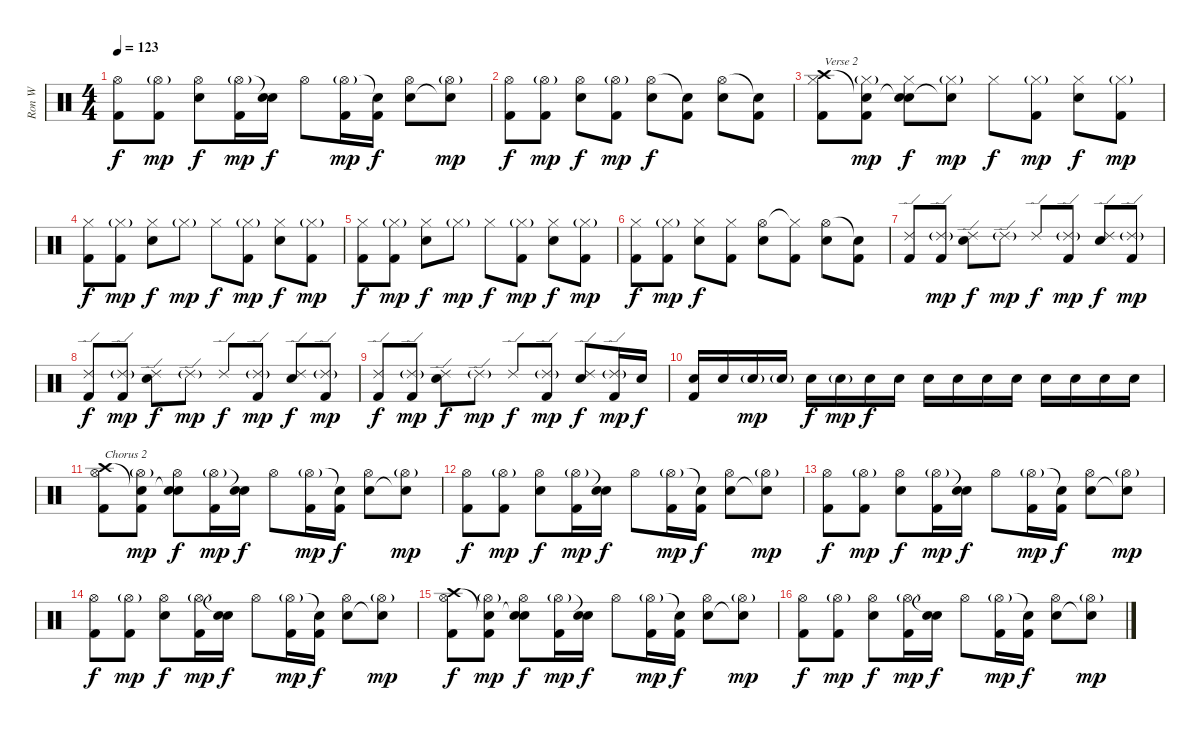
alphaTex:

\track ("Ron W" "Ron W") {instrument percussion}
\staff {score}
\articulation defaults
\ts (4 4)
\tempo 123
\clef neutral
\ks c
("Hi-Hat (open)" "Kick (hit) 2").8{dy f volume 12} ("Hi-Hat (open)"{g} "Kick (hit) 2").8{dy mp} ("Hi-Hat (open)" "Electric Snare (hit)").8{dy f} ("Hi-Hat (open)"{g} "Kick (hit) 2").16{dy mp} ("Snare (hit)"{t} "Electric Snare (hit)").16{dy f} "Hi-Hat (open)".8 ("Hi-Hat (open)"{g} "Kick (hit) 2").16{dy mp} ("Snare (hit)"{t} "Kick (hit) 2").16{dy f} ("Hi-Hat (open)" "Electric Snare (hit)").8 ("Hi-Hat (open)"{g} "Snare (hit)"{t}).8{dy mp} |
("Hi-Hat (open)" "Kick (hit) 2").8{dy f volume 12} ("Hi-Hat (open)"{g} "Kick (hit) 2").8{dy mp} ("Hi-Hat (open)" "Electric Snare (hit)").8{dy f} ("Hi-Hat (open)"{g} "Kick (hit) 2").8{dy mp} ("Hi-Hat (open)" "Electric Snare (hit)").8{dy f} ("Snare (hit)"{t} "Kick (hit) 2").8 ("Hi-Hat (open)" "Electric Snare (hit)").8 ("Snare (hit)"{t} "Kick (hit) 2").8 |
("Crash high (hit)" "Hi-Hat (closed)" "Kick (hit) 2").8{txt "Verse 2" volume 10 balance 8} ("Snare (hit)"{t} "Hi-Hat (closed)"{g} "Kick (hit) 2").8{dy mp balance 8} ("Snare (hit)"{t} "Hi-Hat (closed)" "Electric Snare (hit)").8{dy f balance 8} ("Snare (hit)"{t} "Hi-Hat (closed)"{g}).8{dy mp balance 8} "Hi-Hat (closed)".8{dy f} ("Hi-Hat (closed)"{g} "Kick (hit) 2").8{dy mp balance 8} ("Hi-Hat (closed)" "Electric Snare (hit)").8{dy f} ("Hi-Hat (closed)"{g} "Kick (hit) 2").8{dy mp} |
("Hi-Hat (closed)" "Kick (hit) 2").8{dy f balance 8} ("Hi-Hat (closed)"{g} "Kick (hit) 2").8{dy mp} ("Hi-Hat (closed)" "Electric Snare (hit)").8{dy f} "Hi-Hat (closed)"{g}.8{dy mp} "Hi-Hat (closed)".8{dy f} ("Hi-Hat (closed)"{g} "Kick (hit) 2").8{dy mp} ("Hi-Hat (closed)" "Electric Snare (hit)").8{dy f} ("Hi-Hat (closed)"{g} "Kick (hit) 2").8{dy mp} |
("Hi-Hat (closed)" "Kick (hit) 2").8{dy f balance 8} ("Hi-Hat (closed)"{g} "Kick (hit) 2").8{dy mp} ("Hi-Hat (closed)" "Electric Snare (hit)").8{dy f} "Hi-Hat (closed)"{g}.8{dy mp} "Hi-Hat (closed)".8{dy f} ("Hi-Hat (closed)"{g} "Kick (hit) 2").8{dy mp} ("Hi-Hat (closed)" "Electric Snare (hit)").8{dy f} ("Hi-Hat (closed)"{g} "Kick (hit) 2").8{dy mp} |
("Hi-Hat (closed)" "Kick (hit) 2").8{dy f balance 8} ("Hi-Hat (closed)"{g} "Kick (hit) 2").8{dy mp} ("Hi-Hat (closed)" "Electric Snare (hit)").8{dy f} ("Hi-Hat (closed)" "Kick (hit) 2").8 ("Hi-Hat (open)" "Electric Snare (hit)").8 ("Hi-Hat (closed)"{t} "Kick (hit) 2").8 ("Hi-Hat (open)" "Electric Snare (hit)").8 ("Snare (hit)"{t} "Kick (hit) 2").8 |
("Ride (edge) 2" "Kick (hit) 2").8{balance 8} ("Ride (edge) 2"{g} "Kick (hit) 2").8{dy mp} ("Ride (edge) 2" "Electric Snare (hit)").8{dy f} "Ride (edge) 2"{g}.8{dy mp} "Ride (edge) 2".8{dy f} ("Ride (edge) 2"{g} "Kick (hit) 2").8{dy mp} ("Ride (edge) 2" "Electric Snare (hit)").8{dy f} ("Ride (edge) 2"{g} "Kick (hit) 2").8{dy mp} |
("Ride (edge) 2" "Kick (hit) 2").8{dy f balance 8} ("Ride (edge) 2"{g} "Kick (hit) 2").8{dy mp} ("Ride (edge) 2" "Electric Snare (hit)").8{dy f} "Ride (edge) 2"{g}.8{dy mp} "Ride (edge) 2".8{dy f} ("Ride (edge) 2"{g} "Kick (hit) 2").8{dy mp} ("Ride (edge) 2" "Electric Snare (hit)").8{dy f} ("Ride (edge) 2"{g} "Kick (hit) 2").8{dy mp} |
("Ride (edge) 2" "Kick (hit) 2").8{dy f balance 8} ("Ride (edge) 2"{g} "Kick (hit) 2").8{dy mp} ("Ride (edge) 2" "Electric Snare (hit)").8{dy f} "Ride (edge) 2"{g}.8{dy mp} "Ride (edge) 2".8{dy f} ("Ride (edge) 2"{g} "Kick (hit) 2").8{dy mp} ("Ride (edge) 2" "Electric Snare (hit)").8{dy f} ("Ride (edge) 2"{g} "Kick (hit) 2").16{dy mp} "Electric Snare (hit)".16{dy f} |
("Electric Snare (hit)" "Kick (hit) 2").16{balance 8} "Electric Snare (hit)".16 "Electric Snare (hit)"{g}.16{dy mp} "Electric Snare (hit)"{g}.16 "Electric Snare (hit)".16{dy f} "Electric Snare (hit)"{g}.16{dy mp} "Electric Snare (hit)".16{dy f} "Electric Snare (hit)".16 "Electric Snare (hit)".16 "Electric Snare (hit)".16 "Electric Snare (hit)".16 "Electric Snare (hit)".16 "Electric Snare (hit)".16 "Electric Snare (hit)".16 "Electric Snare (hit)".16 "Electric Snare (hit)".16 |
("Crash high (hit)" "Hi-Hat (open)" "Kick (hit) 2").8{txt "Chorus 2" volume 12 balance 8} ("Snare (hit)"{t} "Hi-Hat (open)"{g} "Kick (hit) 2").8{dy mp} ("Snare (hit)"{t} "Hi-Hat (open)" "Electric Snare (hit)").8{dy f} ("Hi-Hat (open)"{g} "Kick (hit) 2").16{dy mp} ("Snare (hit)"{t} "Electric Snare (hit)").16{dy f} "Hi-Hat (open)".8 ("Hi-Hat (open)"{g} "Kick (hit) 2").16{dy mp} ("Snare (hit)"{t} "Kick (hit) 2").16{dy f} ("Hi-Hat (open)" "Electric Snare (hit)").8 ("Hi-Hat (open)"{g} "Snare (hit)"{t}).8{dy mp} |
("Hi-Hat (open)" "Kick (hit) 2").8{dy f volume 12} ("Hi-Hat (open)"{g} "Kick (hit) 2").8{dy mp} ("Hi-Hat (open)" "Electric Snare (hit)").8{dy f} ("Hi-Hat (open)"{g} "Kick (hit) 2").16{dy mp} ("Snare (hit)"{t} "Electric Snare (hit)").16{dy f} "Hi-Hat (open)".8 ("Hi-Hat (open)"{g} "Kick (hit) 2").16{dy mp} ("Snare (hit)"{t} "Kick (hit) 2").16{dy f} ("Hi-Hat (open)" "Electric Snare (hit)").8 ("Hi-Hat (open)"{g} "Snare (hit)"{t}).8{dy mp} |
("Hi-Hat (open)" "Kick (hit) 2").8{dy f volume 12} ("Hi-Hat (open)"{g} "Kick (hit) 2").8{dy mp} ("Hi-Hat (open)" "Electric Snare (hit)").8{dy f} ("Hi-Hat (open)"{g} "Kick (hit) 2").16{dy mp} ("Snare (hit)"{t} "Electric Snare (hit)").16{dy f} "Hi-Hat (open)".8 ("Hi-Hat (open)"{g} "Kick (hit) 2").16{dy mp} ("Snare (hit)"{t} "Kick (hit) 2").16{dy f} ("Hi-Hat (open)" "Electric Snare (hit)").8 ("Hi-Hat (open)"{g} "Snare (hit)"{t}).8{dy mp} |
("Hi-Hat (open)" "Kick (hit) 2").8{dy f volume 12} ("Hi-Hat (open)"{g} "Kick (hit) 2").8{dy mp} ("Hi-Hat (open)" "Electric Snare (hit)").8{dy f} ("Hi-Hat (open)"{g} "Kick (hit) 2").16{dy mp} ("Snare (hit)"{t} "Electric Snare (hit)").16{dy f} "Hi-Hat (open)".8 ("Hi-Hat (open)"{g} "Kick (hit) 2").16{dy mp} ("Snare (hit)"{t} "Kick (hit) 2").16{dy f} ("Hi-Hat (open)" "Electric Snare (hit)").8 ("Hi-Hat (open)"{g} "Snare (hit)"{t}).8{dy mp} |
("Crash high (hit)" "Hi-Hat (open)" "Kick (hit) 2").8{dy f volume 12 balance 8} ("Snare (hit)"{t} "Hi-Hat (open)"{g} "Kick (hit) 2").8{dy mp} ("Snare (hit)"{t} "Hi-Hat (open)" "Electric Snare (hit)").8{dy f} ("Hi-Hat (open)"{g} "Kick (hit) 2").16{dy mp} ("Snare (hit)"{t} "Electric Snare (hit)").16{dy f} "Hi-Hat (open)".8 ("Hi-Hat (open)"{g} "Kick (hit) 2").16{dy mp} ("Snare (hit)"{t} "Kick (hit) 2").16{dy f} ("Hi-Hat (open)" "Electric Snare (hit)").8 ("Hi-Hat (open)"{g} "Snare (hit)"{t}).8{dy mp} |
("Hi-Hat (open)" "Kick (hit) 2").8{dy f volume 12} ("Hi-Hat (open)"{g} "Kick (hit) 2").8{dy mp} ("Hi-Hat (open)" "Electric Snare (hit)").8{dy f} ("Hi-Hat (open)"{g} "Kick (hit) 2").16{dy mp} ("Snare (hit)"{t} "Electric Snare (hit)").16{dy f} "Hi-Hat (open)".8 ("Hi-Hat (open)"{g} "Kick (hit) 2").16{dy mp} ("Snare (hit)"{t} "Kick (hit) 2").16{dy f} ("Hi-Hat (open)" "Electric Snare (hit)").8 ("Hi-Hat (open)"{g} "Snare (hit)"{t}).8{dy mp}
